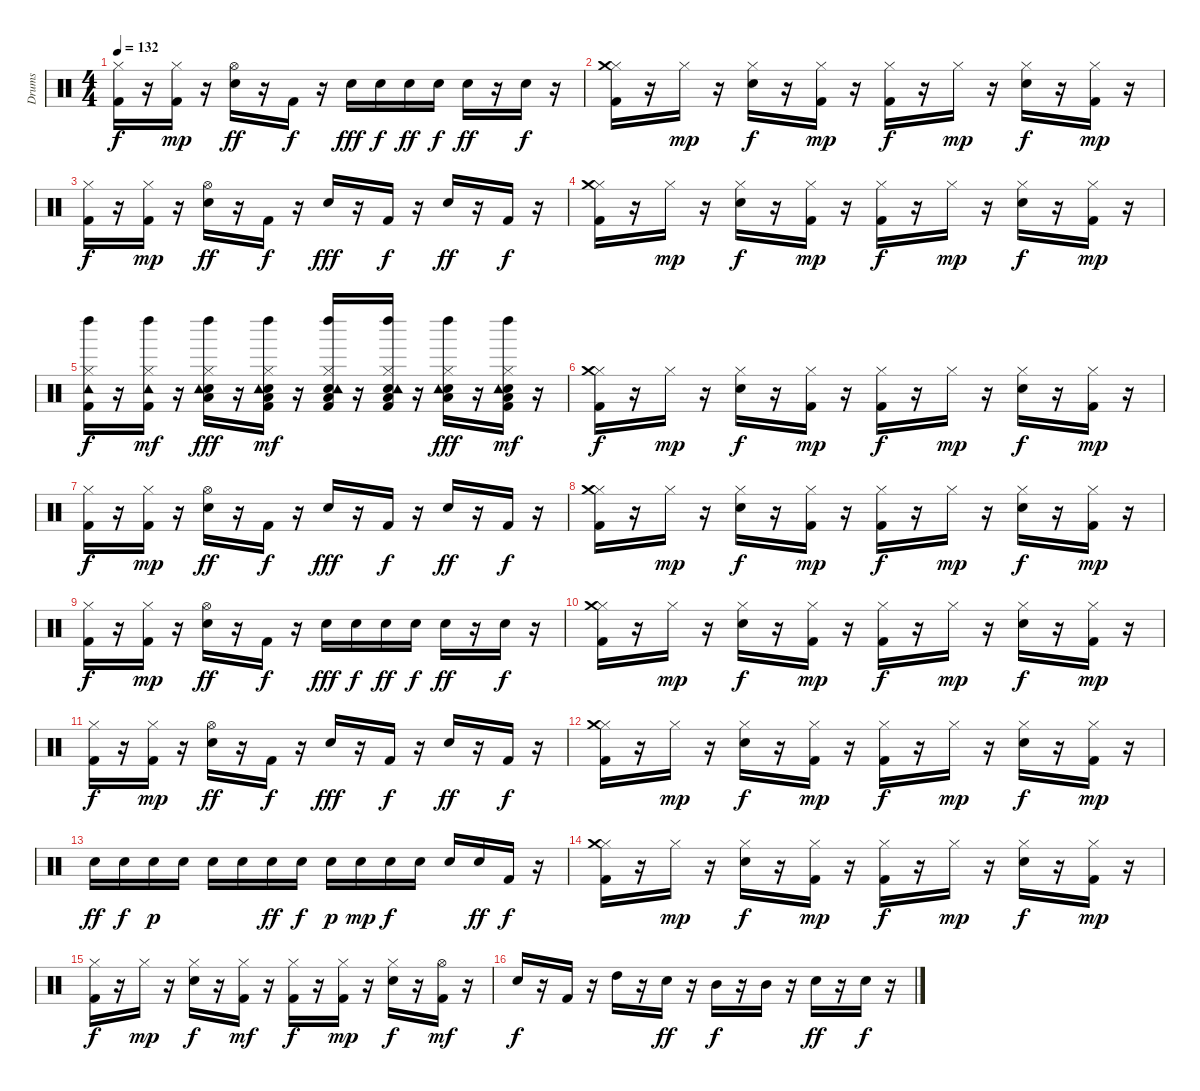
\track ("Drums" "Drums") {instrument percussion}
\staff {score}
\articulation defaults
\ts (4 4)
\tempo 132
\clef neutral
\ks c
("Kick (hit) 2" "Hi-Hat (closed)").16{dy f} r.16 ("Kick (hit) 2" "Hi-Hat (closed)").16{dy mp} r.16 ("Snare (hit) 2" "Hi-Hat (open)").16{dy ff} r.16 "Kick (hit) 2".16{dy f} r.16 "Snare (hit) 2".16{dy fff} "Snare (hit) 2".16{dy f} "Snare (hit) 2".16{dy ff} "Snare (hit) 2".16{dy f} "Snare (hit) 2".16{dy ff} r.16 "Snare (hit) 2".16{dy f} r.16 |
("Kick (hit) 2" "Hi-Hat (closed)" "Crash medium (hit)").16 r.16 "Hi-Hat (closed)".16{dy mp} r.16 ("Snare (hit) 2" "Hi-Hat (closed)").16{dy f} r.16 ("Kick (hit) 2" "Hi-Hat (closed)").16{dy mp} r.16 ("Kick (hit) 2" "Hi-Hat (closed)").16{dy f} r.16 "Hi-Hat (closed)".16{dy mp} r.16 ("Snare (hit) 2" "Hi-Hat (closed)").16{dy f} r.16 ("Kick (hit) 2" "Hi-Hat (closed)").16{dy mp} r.16 |
("Kick (hit) 2" "Hi-Hat (closed)").16{dy f} r.16 ("Kick (hit) 2" "Hi-Hat (closed)").16{dy mp} r.16 ("Snare (hit) 2" "Hi-Hat (open)").16{dy ff} r.16 "Kick (hit) 2".16{dy f} r.16 "Snare (hit) 2".16{dy fff} r.16 "Kick (hit) 2".16{dy f} r.16 "Snare (hit) 2".16{dy ff} r.16 "Kick (hit) 2".16{dy f} r.16 |
("Kick (hit) 2" "Hi-Hat (closed)" "Crash medium (hit)").16 r.16 "Hi-Hat (closed)".16{dy mp} r.16 ("Snare (hit) 2" "Hi-Hat (closed)").16{dy f} r.16 ("Kick (hit) 2" "Hi-Hat (closed)").16{dy mp} r.16 ("Kick (hit) 2" "Hi-Hat (closed)").16{dy f} r.16 "Hi-Hat (closed)".16{dy mp} r.16 ("Snare (hit) 2" "Hi-Hat (closed)").16{dy f} r.16 ("Kick (hit) 2" "Hi-Hat (closed)").16{dy mp} r.16 |
("Kick (hit) 2" "Hi-Hat (closed)" "Tambourine (hit)" "Left Maraca (hit)").16{dy f} r.16 ("Kick (hit) 2" "Hi-Hat (closed)" "Tambourine (hit)" "Left Maraca (hit)").16{dy mf} r.16 ("Snare (hit) 2" "Hi-Hat (closed)" "Low Floor Tom (hit)" "Tambourine (hit)" "Left Maraca (hit)").16{dy fff} r.16 ("Kick (hit) 2" "Snare (hit) 2" "Hi-Hat (closed)" "Low Floor Tom (hit)" "Tambourine (hit)" "Left Maraca (hit)").16{dy mf} r.16 ("Kick (hit) 2" "Snare (hit) 2" "Hi-Hat (closed)" "Low Floor Tom (hit)" "Tambourine (hit)" "Left Maraca (hit)").16 r.16 ("Kick (hit) 2" "Snare (hit) 2" "Hi-Hat (closed)" "Low Floor Tom (hit)" "Tambourine (hit)" "Left Maraca (hit)").16 r.16 ("Snare (hit) 2" "Hi-Hat (closed)" "Low Floor Tom (hit)" "Tambourine (hit)" "Left Maraca (hit)").16{dy fff} r.16 ("Kick (hit) 2" "Snare (hit) 2" "Hi-Hat (closed)" "Low Floor Tom (hit)" "Tambourine (hit)" "Left Maraca (hit)").16{dy mf} r.16 |
("Kick (hit) 2" "Hi-Hat (closed)" "Crash medium (hit)").16{dy f} r.16 "Hi-Hat (closed)".16{dy mp} r.16 ("Snare (hit) 2" "Hi-Hat (closed)").16{dy f} r.16 ("Kick (hit) 2" "Hi-Hat (closed)").16{dy mp} r.16 ("Kick (hit) 2" "Hi-Hat (closed)").16{dy f} r.16 "Hi-Hat (closed)".16{dy mp} r.16 ("Snare (hit) 2" "Hi-Hat (closed)").16{dy f} r.16 ("Kick (hit) 2" "Hi-Hat (closed)").16{dy mp} r.16 |
("Kick (hit) 2" "Hi-Hat (closed)").16{dy f} r.16 ("Kick (hit) 2" "Hi-Hat (closed)").16{dy mp} r.16 ("Snare (hit) 2" "Hi-Hat (open)").16{dy ff} r.16 "Kick (hit) 2".16{dy f} r.16 "Snare (hit) 2".16{dy fff} r.16 "Kick (hit) 2".16{dy f} r.16 "Snare (hit) 2".16{dy ff} r.16 "Kick (hit) 2".16{dy f} r.16 |
("Kick (hit) 2" "Hi-Hat (closed)" "Crash medium (hit)").16 r.16 "Hi-Hat (closed)".16{dy mp} r.16 ("Snare (hit) 2" "Hi-Hat (closed)").16{dy f} r.16 ("Kick (hit) 2" "Hi-Hat (closed)").16{dy mp} r.16 ("Kick (hit) 2" "Hi-Hat (closed)").16{dy f} r.16 "Hi-Hat (closed)".16{dy mp} r.16 ("Snare (hit) 2" "Hi-Hat (closed)").16{dy f} r.16 ("Kick (hit) 2" "Hi-Hat (closed)").16{dy mp} r.16 |
("Kick (hit) 2" "Hi-Hat (closed)").16{dy f} r.16 ("Kick (hit) 2" "Hi-Hat (closed)").16{dy mp} r.16 ("Snare (hit) 2" "Hi-Hat (open)").16{dy ff} r.16 "Kick (hit) 2".16{dy f} r.16 "Snare (hit) 2".16{dy fff} "Snare (hit) 2".16{dy f} "Snare (hit) 2".16{dy ff} "Snare (hit) 2".16{dy f} "Snare (hit) 2".16{dy ff} r.16 "Snare (hit) 2".16{dy f} r.16 |
("Kick (hit) 2" "Hi-Hat (closed)" "Crash medium (hit)").16 r.16 "Hi-Hat (closed)".16{dy mp} r.16 ("Snare (hit) 2" "Hi-Hat (closed)").16{dy f} r.16 ("Kick (hit) 2" "Hi-Hat (closed)").16{dy mp} r.16 ("Kick (hit) 2" "Hi-Hat (closed)").16{dy f} r.16 "Hi-Hat (closed)".16{dy mp} r.16 ("Snare (hit) 2" "Hi-Hat (closed)").16{dy f} r.16 ("Kick (hit) 2" "Hi-Hat (closed)").16{dy mp} r.16 |
("Kick (hit) 2" "Hi-Hat (closed)").16{dy f} r.16 ("Kick (hit) 2" "Hi-Hat (closed)").16{dy mp} r.16 ("Snare (hit) 2" "Hi-Hat (open)").16{dy ff} r.16 "Kick (hit) 2".16{dy f} r.16 "Snare (hit) 2".16{dy fff} r.16 "Kick (hit) 2".16{dy f} r.16 "Snare (hit) 2".16{dy ff} r.16 "Kick (hit) 2".16{dy f} r.16 |
("Kick (hit) 2" "Hi-Hat (closed)" "Crash medium (hit)").16 r.16 "Hi-Hat (closed)".16{dy mp} r.16 ("Snare (hit) 2" "Hi-Hat (closed)").16{dy f} r.16 ("Kick (hit) 2" "Hi-Hat (closed)").16{dy mp} r.16 ("Kick (hit) 2" "Hi-Hat (closed)").16{dy f} r.16 "Hi-Hat (closed)".16{dy mp} r.16 ("Snare (hit) 2" "Hi-Hat (closed)").16{dy f} r.16 ("Kick (hit) 2" "Hi-Hat (closed)").16{dy mp} r.16 |
"Snare (hit) 2".16{dy ff} "Snare (hit) 2".16{dy f} "Snare (hit) 2".16{dy p} "Snare (hit) 2".16 "Snare (hit) 2".16 "Snare (hit) 2".16 "Snare (hit) 2".16{dy ff} "Snare (hit) 2".16{dy f} "Snare (hit) 2".16{dy p} "Snare (hit) 2".16{dy mp} "Snare (hit) 2".16{dy f} "Snare (hit) 2".16 "Snare (hit) 2".16 "Snare (hit) 2".16{dy ff} "Kick (hit) 2".16{dy f} r.16 |
("Kick (hit) 2" "Hi-Hat (closed)" "Crash medium (hit)").16 r.16 "Hi-Hat (closed)".16{dy mp} r.16 ("Snare (hit) 2" "Hi-Hat (closed)").16{dy f} r.16 ("Kick (hit) 2" "Hi-Hat (closed)").16{dy mp} r.16 ("Kick (hit) 2" "Hi-Hat (closed)").16{dy f} r.16 "Hi-Hat (closed)".16{dy mp} r.16 ("Snare (hit) 2" "Hi-Hat (closed)").16{dy f} r.16 ("Kick (hit) 2" "Hi-Hat (closed)").16{dy mp} r.16 |
("Kick (hit) 2" "Hi-Hat (closed)").16{dy f} r.16 "Hi-Hat (closed)".16{dy mp} r.16 ("Snare (hit) 2" "Hi-Hat (closed)").16{dy f} r.16 ("Kick (hit) 2" "Hi-Hat (closed)").16{dy mf} r.16 ("Kick (hit) 2" "Hi-Hat (closed)").16{dy f} r.16 ("Kick (hit) 2" "Hi-Hat (closed)").16{dy mp} r.16 ("Snare (hit) 2" "Hi-Hat (closed)").16{dy f} r.16 ("Kick (hit) 2" "Hi-Hat (open)").16{dy mf} r.16 |
"Snare (hit) 2".16{dy f} r.16 "Kick (hit) 2".16 r.16 "High Tom (hit)".16 r.16 "Snare (hit) 2".16{dy ff} r.16 "Mid Tom (hit)".16{dy f} r.16 "Mid Tom (hit)".16 r.16 "Snare (hit) 2".16{dy ff} r.16 "Snare (hit) 2".16{dy f} r.16
